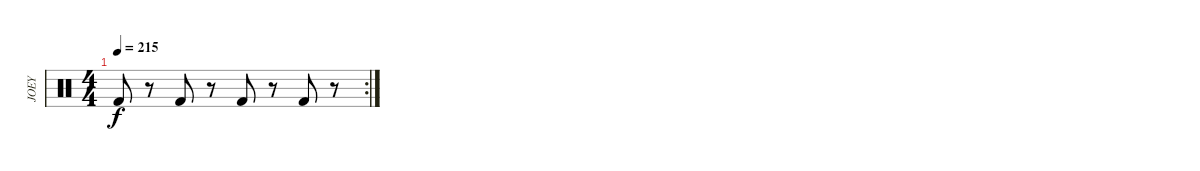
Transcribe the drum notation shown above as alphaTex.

\track ("JOEY" "JOEY") {instrument percussion}
\staff {score}
\articulation defaults
\rc 2
\ts (4 4)
\tempo 215
\clef neutral
\ks c "Kick (hit) 2".8{dy f}
r.8 "Kick (hit) 2".8 r.8 "Kick (hit) 2".8 r.8 "Kick (hit) 2".8 r.8
